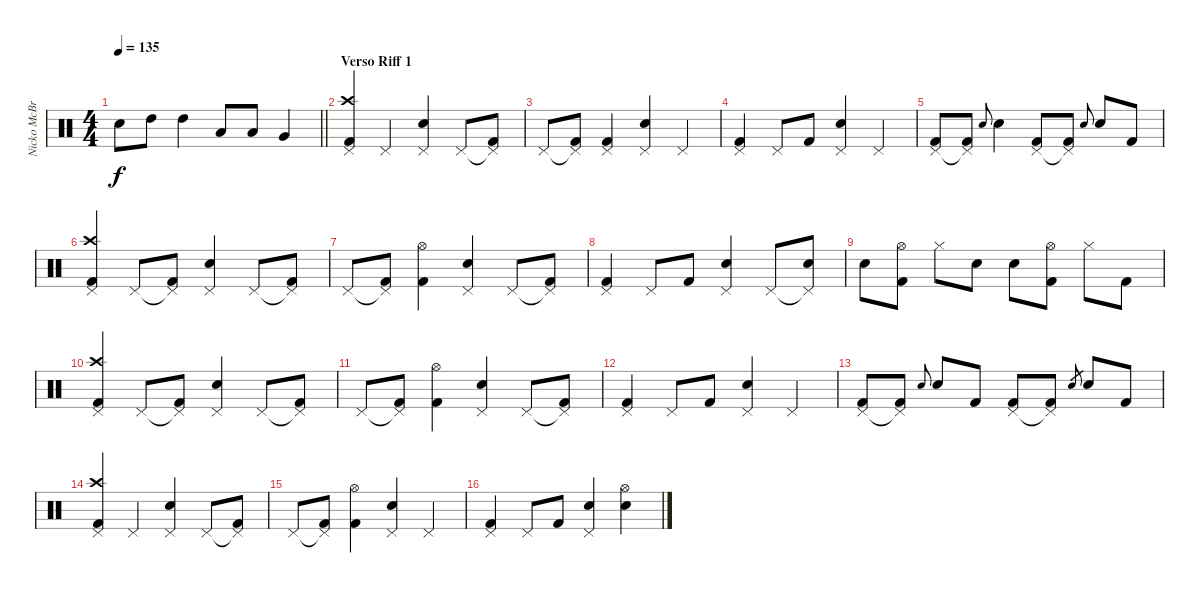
\track ("Nicko McBrain" "Nicko McBr") {instrument percussion}
\staff {score}
\articulation defaults
\ts (4 4)
\tempo 135
\clef neutral
\barLineRight lightlight
\ks c "Snare (hit) 2".8{dy f} "High Tom (hit)".8 "High Tom (hit)".4 "Low Tom (hit)".8 "Low Tom (hit)".8 "Very Low Tom (hit)".4
|
\section ("" "Verso Riff 1")
("Pedal Hi-Hat (hit)" "Crash high (hit)" "Kick (hit) 2").4 "Pedal Hi-Hat (hit)".4 ("Pedal Hi-Hat (hit)" "Snare (hit) 2").4 "Pedal Hi-Hat (hit)".8 ("Pedal Hi-Hat (hit)"{t} "Kick (hit) 2").8 |
"Pedal Hi-Hat (hit)".8 ("Pedal Hi-Hat (hit)"{t} "Kick (hit) 2").8 ("Pedal Hi-Hat (hit)" "Kick (hit) 2").4 ("Pedal Hi-Hat (hit)" "Snare (hit) 2").4 "Pedal Hi-Hat (hit)".4 |
("Pedal Hi-Hat (hit)" "Kick (hit) 2").4 "Pedal Hi-Hat (hit)".8 "Kick (hit) 2".8 ("Pedal Hi-Hat (hit)" "Snare (hit) 2").4 "Pedal Hi-Hat (hit)".4 |
("Pedal Hi-Hat (hit)" "Kick (hit) 2").8 ("Pedal Hi-Hat (hit)"{t} "Kick (hit) 2").8 "Snare (hit) 2".8{gr onbeat} "Snare (hit) 2".4 ("Pedal Hi-Hat (hit)" "Kick (hit) 2").8 ("Pedal Hi-Hat (hit)"{t} "Kick (hit) 2").8 "Snare (hit) 2".8{gr onbeat} "Snare (hit) 2".8 "Kick (hit) 2".8 |
("Pedal Hi-Hat (hit)" "Crash high (hit)" "Kick (hit) 2").4 "Pedal Hi-Hat (hit)".8 ("Pedal Hi-Hat (hit)"{t} "Kick (hit) 2").8 ("Pedal Hi-Hat (hit)" "Snare (hit) 2").4 "Pedal Hi-Hat (hit)".8 ("Pedal Hi-Hat (hit)"{t} "Kick (hit) 2").8 |
"Pedal Hi-Hat (hit)".8 ("Pedal Hi-Hat (hit)"{t} "Kick (hit) 2").8 ("Hi-Hat (open)" "Kick (hit) 2").4 ("Pedal Hi-Hat (hit)" "Snare (hit) 2").4 "Pedal Hi-Hat (hit)".8 ("Pedal Hi-Hat (hit)"{t} "Kick (hit) 2").8 |
("Pedal Hi-Hat (hit)" "Kick (hit) 2").4 "Pedal Hi-Hat (hit)".8 "Kick (hit) 2".8 ("Pedal Hi-Hat (hit)" "Snare (hit) 2").4 "Pedal Hi-Hat (hit)".8 ("Pedal Hi-Hat (hit)"{t} "Snare (hit) 2").8 |
"Snare (hit) 2".8 ("Hi-Hat (open)" "Kick (hit) 2").8 "Hi-Hat (closed)".8 "Snare (hit) 2".8 "Snare (hit) 2".8 ("Hi-Hat (open)" "Kick (hit) 2").8 "Hi-Hat (closed)".8 "Kick (hit) 2".8 |
("Pedal Hi-Hat (hit)" "Crash high (hit)" "Kick (hit) 2").4 "Pedal Hi-Hat (hit)".8 ("Pedal Hi-Hat (hit)"{t} "Kick (hit) 2").8 ("Pedal Hi-Hat (hit)" "Snare (hit) 2").4 "Pedal Hi-Hat (hit)".8 ("Pedal Hi-Hat (hit)"{t} "Kick (hit) 2").8 |
"Pedal Hi-Hat (hit)".8 ("Pedal Hi-Hat (hit)"{t} "Kick (hit) 2").8 ("Hi-Hat (open)" "Kick (hit) 2").4 ("Pedal Hi-Hat (hit)" "Snare (hit) 2").4 "Pedal Hi-Hat (hit)".8 ("Pedal Hi-Hat (hit)"{t} "Kick (hit) 2").8 |
("Pedal Hi-Hat (hit)" "Kick (hit) 2").4 "Pedal Hi-Hat (hit)".8 "Kick (hit) 2".8 ("Pedal Hi-Hat (hit)" "Snare (hit) 2").4 "Pedal Hi-Hat (hit)".4 |
("Pedal Hi-Hat (hit)" "Kick (hit) 2").8 ("Pedal Hi-Hat (hit)"{t} "Kick (hit) 2").8 "Snare (hit) 2".8{gr onbeat} "Snare (hit) 2".8 "Kick (hit) 2".8 ("Pedal Hi-Hat (hit)" "Kick (hit) 2").8 ("Pedal Hi-Hat (hit)"{t} "Kick (hit) 2").8 "Snare (hit) 2".8{gr} "Snare (hit) 2".8 "Kick (hit) 2".8 |
("Pedal Hi-Hat (hit)" "Crash high (hit)" "Kick (hit) 2").4 "Pedal Hi-Hat (hit)".4 ("Pedal Hi-Hat (hit)" "Snare (hit) 2").4 "Pedal Hi-Hat (hit)".8 ("Pedal Hi-Hat (hit)"{t} "Kick (hit) 2").8 |
"Pedal Hi-Hat (hit)".8 ("Pedal Hi-Hat (hit)"{t} "Kick (hit) 2").8 ("Hi-Hat (open)" "Kick (hit) 2").4 ("Pedal Hi-Hat (hit)" "Snare (hit) 2").4 "Pedal Hi-Hat (hit)".4 |
("Pedal Hi-Hat (hit)" "Kick (hit) 2").4 "Pedal Hi-Hat (hit)".8 "Kick (hit) 2".8 ("Pedal Hi-Hat (hit)" "Snare (hit) 2").4 ("Hi-Hat (open)" "Snare (hit) 2").4
